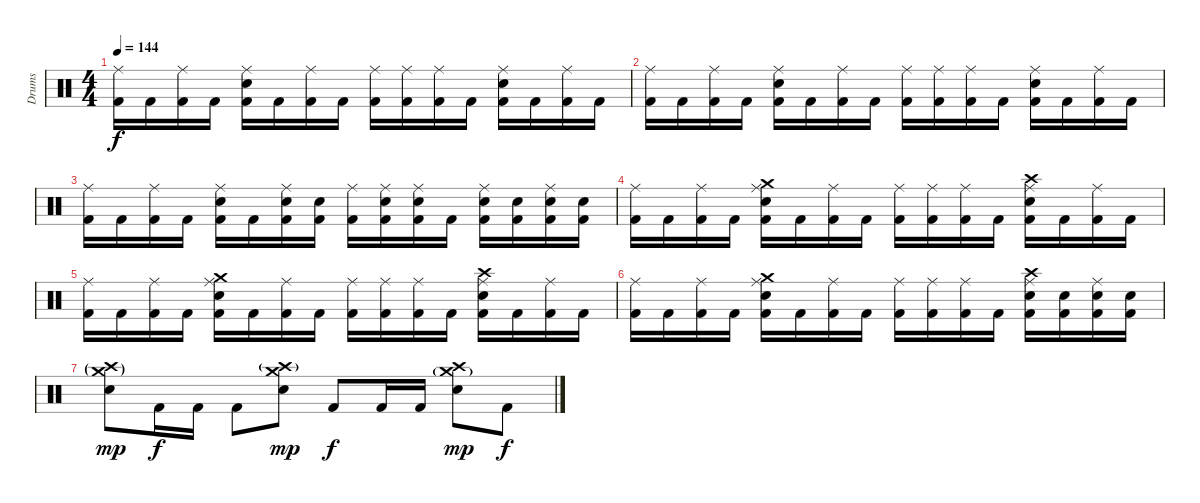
\track ("Drums" "Drums") {instrument percussion}
\staff {score}
\articulation defaults
\ts (4 4)
\tempo 144
\clef neutral
\ks c
("Ride (middle)" "Kick (hit) 2").16{dy f} "Kick (hit) 2".16 ("Ride (middle)" "Kick (hit) 2").16 "Kick (hit) 2".16 ("Ride (middle)" "Snare (hit) 2" "Kick (hit) 2").16 "Kick (hit) 2".16 ("Ride (middle)" "Kick (hit) 2").16 "Kick (hit) 2".16 ("Ride (middle)" "Kick (hit) 2").16 ("Ride (middle)" "Kick (hit) 2").16 ("Ride (middle)" "Kick (hit) 2").16 "Kick (hit) 2".16 ("Ride (middle)" "Snare (hit) 2" "Kick (hit) 2").16 "Kick (hit) 2".16 ("Ride (middle)" "Kick (hit) 2").16 "Kick (hit) 2".16 |
("Ride (middle)" "Kick (hit) 2").16 "Kick (hit) 2".16 ("Ride (middle)" "Kick (hit) 2").16 "Kick (hit) 2".16 ("Ride (middle)" "Snare (hit) 2" "Kick (hit) 2").16 "Kick (hit) 2".16 ("Ride (middle)" "Kick (hit) 2").16 "Kick (hit) 2".16 ("Ride (middle)" "Kick (hit) 2").16 ("Ride (middle)" "Kick (hit) 2").16 ("Ride (middle)" "Kick (hit) 2").16 "Kick (hit) 2".16 ("Ride (middle)" "Snare (hit) 2" "Kick (hit) 2").16 "Kick (hit) 2".16 ("Ride (middle)" "Kick (hit) 2").16 "Kick (hit) 2".16 |
("Ride (middle)" "Kick (hit) 2").16 "Kick (hit) 2".16 ("Ride (middle)" "Kick (hit) 2").16 "Kick (hit) 2".16 ("Ride (middle)" "Snare (hit) 2" "Kick (hit) 2").16 "Kick (hit) 2".16 ("Ride (middle)" "Snare (hit) 2" "Kick (hit) 2").16 ("Snare (hit) 2" "Kick (hit) 2").16 ("Ride (middle)" "Kick (hit) 2").16 ("Ride (middle)" "Snare (hit) 2" "Kick (hit) 2").16 ("Ride (middle)" "Snare (hit) 2" "Kick (hit) 2").16 "Kick (hit) 2".16 ("Ride (middle)" "Snare (hit) 2" "Kick (hit) 2").16 ("Snare (hit) 2" "Kick (hit) 2").16 ("Ride (middle)" "Snare (hit) 2" "Kick (hit) 2").16 ("Snare (hit) 2" "Kick (hit) 2").16 |
("Ride (middle)" "Kick (hit) 2").16 "Kick (hit) 2".16 ("Ride (middle)" "Kick (hit) 2").16 "Kick (hit) 2".16 ("Ride (middle)" "Crash medium (hit)" "Snare (hit) 2" "Kick (hit) 2").16 "Kick (hit) 2".16 ("Ride (middle)" "Kick (hit) 2").16 "Kick (hit) 2".16 ("Ride (middle)" "Kick (hit) 2").16 ("Ride (middle)" "Kick (hit) 2").16 ("Ride (middle)" "Kick (hit) 2").16 "Kick (hit) 2".16 ("Ride (middle)" "Crash high (hit)" "Snare (hit) 2" "Kick (hit) 2").16 "Kick (hit) 2".16 ("Ride (middle)" "Kick (hit) 2").16 "Kick (hit) 2".16 |
("Ride (middle)" "Kick (hit) 2").16 "Kick (hit) 2".16 ("Ride (middle)" "Kick (hit) 2").16 "Kick (hit) 2".16 ("Ride (middle)" "Crash medium (hit)" "Snare (hit) 2" "Kick (hit) 2").16 "Kick (hit) 2".16 ("Ride (middle)" "Kick (hit) 2").16 "Kick (hit) 2".16 ("Ride (middle)" "Kick (hit) 2").16 ("Ride (middle)" "Kick (hit) 2").16 ("Ride (middle)" "Kick (hit) 2").16 "Kick (hit) 2".16 ("Ride (middle)" "Crash high (hit)" "Snare (hit) 2" "Kick (hit) 2").16 "Kick (hit) 2".16 ("Ride (middle)" "Kick (hit) 2").16 "Kick (hit) 2".16 |
("Ride (middle)" "Kick (hit) 2").16 "Kick (hit) 2".16 ("Ride (middle)" "Kick (hit) 2").16 "Kick (hit) 2".16 ("Ride (middle)" "Crash medium (hit)" "Snare (hit) 2" "Kick (hit) 2").16 "Kick (hit) 2".16 ("Ride (middle)" "Kick (hit) 2").16 "Kick (hit) 2".16 ("Ride (middle)" "Kick (hit) 2").16 ("Ride (middle)" "Kick (hit) 2").16 ("Ride (middle)" "Kick (hit) 2").16 "Kick (hit) 2".16 ("Ride (middle)" "Crash high (hit)" "Snare (hit) 2" "Kick (hit) 2").16 ("Snare (hit) 2" "Kick (hit) 2").16 ("Ride (middle)" "Snare (hit) 2" "Kick (hit) 2").16 ("Snare (hit) 2" "Kick (hit) 2").16 |
("Crash medium (hit)"{g} "Crash high (hit)"{g} "Snare (hit) 2").8{dy mp} "Kick (hit) 2".16{dy f} "Kick (hit) 2".16 "Kick (hit) 2".8 ("Crash medium (hit)" "Crash high (hit)"{g} "Snare (hit) 2").8{dy mp} "Kick (hit) 2".8{dy f} "Kick (hit) 2".16 "Kick (hit) 2".16 ("Crash medium (hit)"{g} "Crash high (hit)" "Snare (hit) 2").8{dy mp} "Kick (hit) 2".8{dy f}
